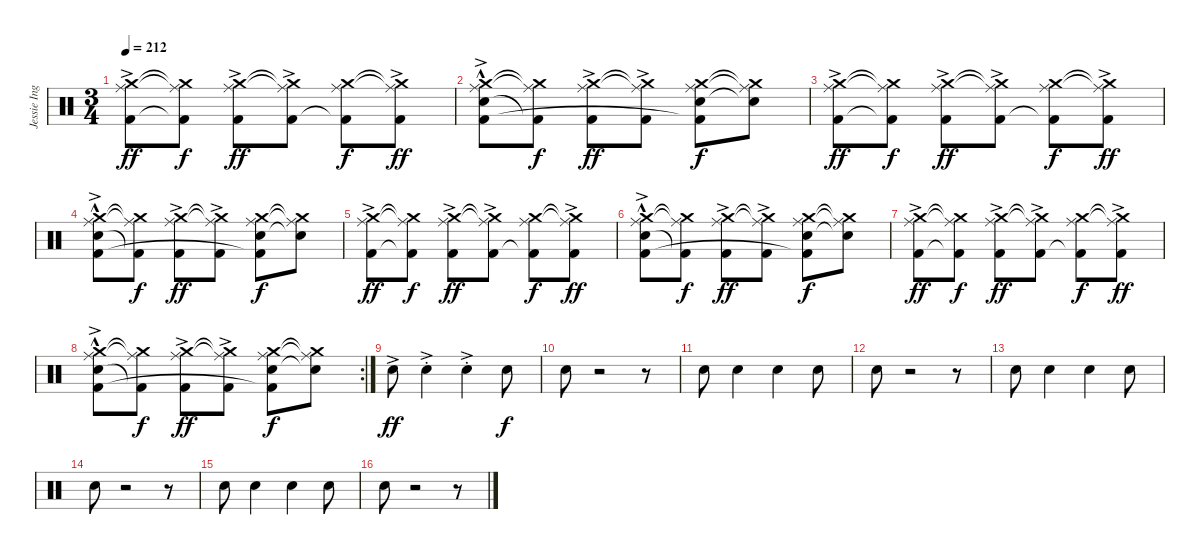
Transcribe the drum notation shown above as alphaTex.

\track ("Jessie Ingelevics" "Jessie Ing") {instrument percussion}
\staff {score}
\articulation defaults
\ts (3 4)
\tempo 212
\clef neutral
\ks c
("Crash medium (hit)" "Ride (middle)" "Kick (hit) 2"{ac}).8{dy ff} ("Crash medium (hit)"{t} "Ride (middle)"{t} "Kick (hit) 2"{t}).8{dy f} ("Crash medium (hit)" "Ride (middle)" "Kick (hit) 2"{ac}).8{dy ff} ("Crash medium (hit)"{t} "Ride (middle)"{t} "Kick (hit) 2"{ac}).8 ("Crash medium (hit)" "Ride (middle)" "Kick (hit) 2"{t}).8{dy f} ("Crash medium (hit)"{t} "Ride (middle)"{t} "Kick (hit) 2"{ac}).8{dy ff} |
("Crash medium (hit)" "Ride (middle)" "Electric Snare (hit)"{hac} "Kick (hit) 2"{ac}).8 ("Crash medium (hit)"{t} "Ride (middle)"{t} "Kick (hit) 2"{t}).8{dy f} ("Crash medium (hit)" "Ride (middle)" "Kick (hit) 2"{ac}).8{dy ff} ("Crash medium (hit)"{t} "Ride (middle)"{t} "Kick (hit) 2"{ac}).8 ("Crash medium (hit)" "Ride (middle)" "Electric Snare (hit)" "Kick (hit) 2"{t}).8{dy f} ("Crash medium (hit)"{t} "Ride (middle)"{t} "Electric Snare (hit)"{t}).8 |
("Crash medium (hit)" "Ride (middle)" "Kick (hit) 2"{ac}).8{dy ff} ("Crash medium (hit)"{t} "Ride (middle)"{t} "Kick (hit) 2"{t}).8{dy f} ("Crash medium (hit)" "Ride (middle)" "Kick (hit) 2"{ac}).8{dy ff} ("Crash medium (hit)"{t} "Ride (middle)"{t} "Kick (hit) 2"{ac}).8 ("Crash medium (hit)" "Ride (middle)" "Kick (hit) 2"{t}).8{dy f} ("Crash medium (hit)"{t} "Ride (middle)"{t} "Kick (hit) 2"{ac}).8{dy ff} |
("Crash medium (hit)" "Ride (middle)" "Electric Snare (hit)"{hac} "Kick (hit) 2"{ac}).8 ("Crash medium (hit)"{t} "Ride (middle)"{t} "Kick (hit) 2"{t}).8{dy f} ("Crash medium (hit)" "Ride (middle)" "Kick (hit) 2"{ac}).8{dy ff} ("Crash medium (hit)"{t} "Ride (middle)"{t} "Kick (hit) 2"{ac}).8 ("Crash medium (hit)" "Ride (middle)" "Electric Snare (hit)" "Kick (hit) 2"{t}).8{dy f} ("Crash medium (hit)"{t} "Ride (middle)"{t} "Electric Snare (hit)"{t}).8 |
("Crash medium (hit)" "Ride (middle)" "Kick (hit) 2"{ac}).8{dy ff} ("Crash medium (hit)"{t} "Ride (middle)"{t} "Kick (hit) 2"{t}).8{dy f} ("Crash medium (hit)" "Ride (middle)" "Kick (hit) 2"{ac}).8{dy ff} ("Crash medium (hit)"{t} "Ride (middle)"{t} "Kick (hit) 2"{ac}).8 ("Crash medium (hit)" "Ride (middle)" "Kick (hit) 2"{t}).8{dy f} ("Crash medium (hit)"{t} "Ride (middle)"{t} "Kick (hit) 2"{ac}).8{dy ff} |
("Crash medium (hit)" "Ride (middle)" "Electric Snare (hit)"{hac} "Kick (hit) 2"{ac}).8 ("Crash medium (hit)"{t} "Ride (middle)"{t} "Kick (hit) 2"{t}).8{dy f} ("Crash medium (hit)" "Ride (middle)" "Kick (hit) 2"{ac}).8{dy ff} ("Crash medium (hit)"{t} "Ride (middle)"{t} "Kick (hit) 2"{ac}).8 ("Crash medium (hit)" "Ride (middle)" "Electric Snare (hit)" "Kick (hit) 2"{t}).8{dy f} ("Crash medium (hit)"{t} "Ride (middle)"{t} "Electric Snare (hit)"{t}).8 |
("Crash medium (hit)" "Ride (middle)" "Kick (hit) 2"{ac}).8{dy ff} ("Crash medium (hit)"{t} "Ride (middle)"{t} "Kick (hit) 2"{t}).8{dy f} ("Crash medium (hit)" "Ride (middle)" "Kick (hit) 2"{ac}).8{dy ff} ("Crash medium (hit)"{t} "Ride (middle)"{t} "Kick (hit) 2"{ac}).8 ("Crash medium (hit)" "Ride (middle)" "Kick (hit) 2"{t}).8{dy f} ("Crash medium (hit)"{t} "Ride (middle)"{t} "Kick (hit) 2"{ac}).8{dy ff} |
\rc 2
("Crash medium (hit)" "Ride (middle)" "Electric Snare (hit)"{hac} "Kick (hit) 2"{ac}).8 ("Crash medium (hit)"{t} "Ride (middle)"{t} "Kick (hit) 2"{t}).8{dy f} ("Crash medium (hit)" "Ride (middle)" "Kick (hit) 2"{ac}).8{dy ff} ("Crash medium (hit)"{t} "Ride (middle)"{t} "Kick (hit) 2"{ac}).8 ("Crash medium (hit)" "Ride (middle)" "Electric Snare (hit)" "Kick (hit) 2"{t}).8{dy f} ("Crash medium (hit)"{t} "Ride (middle)"{t} "Electric Snare (hit)"{t}).8 |
"Electric Snare (hit)"{ac}.8{dy ff} "Electric Snare (hit)"{ac st}.4 "Electric Snare (hit)"{ac st}.4 "Electric Snare (hit)".8{dy f} |
"Electric Snare (hit)".8 r.2 r.8 |
"Electric Snare (hit)".8 "Electric Snare (hit)".4 "Electric Snare (hit)".4 "Electric Snare (hit)".8 |
"Electric Snare (hit)".8 r.2 r.8 |
"Electric Snare (hit)".8 "Electric Snare (hit)".4 "Electric Snare (hit)".4 "Electric Snare (hit)".8 |
"Electric Snare (hit)".8 r.2 r.8 |
"Electric Snare (hit)".8 "Electric Snare (hit)".4 "Electric Snare (hit)".4 "Electric Snare (hit)".8 |
"Electric Snare (hit)".8 r.2 r.8
